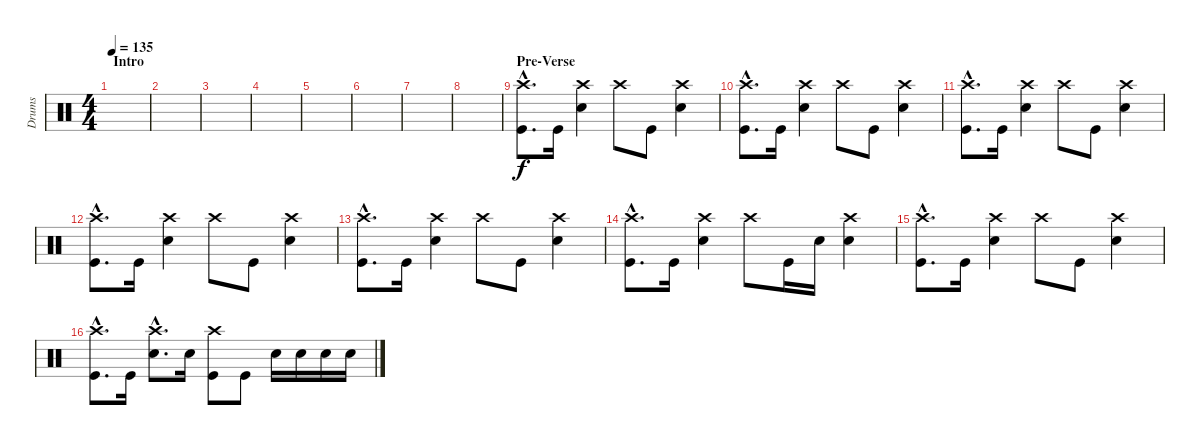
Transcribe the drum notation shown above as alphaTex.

\track ("Drums" "Drums") {instrument percussion}
\staff {score}
\articulation defaults
\ts (4 4)
\section ("" "Intro")
\tempo 135
\clef neutral
\ks c
|
|
|
|
|
|
|
|
\section ("" "Pre-Verse")
("Crash high (hit)"{hac} "Kick (hit)"{hac}).8{d} "Kick (hit)".16 ("Crash high (hit)" "Electric Snare (hit)").4 "Crash high (hit)".8 "Kick (hit)".8 ("Crash high (hit)" "Electric Snare (hit)").4 |
("Crash high (hit)"{hac} "Kick (hit)"{hac}).8{d} "Kick (hit)".16 ("Crash high (hit)" "Electric Snare (hit)").4 "Crash high (hit)".8 "Kick (hit)".8 ("Crash high (hit)" "Electric Snare (hit)").4 |
("Crash high (hit)"{hac} "Kick (hit)"{hac}).8{d} "Kick (hit)".16 ("Crash high (hit)" "Electric Snare (hit)").4 "Crash high (hit)".8 "Kick (hit)".8 ("Crash high (hit)" "Electric Snare (hit)").4 |
("Crash high (hit)"{hac} "Kick (hit)"{hac}).8{d} "Kick (hit)".16 ("Crash high (hit)" "Electric Snare (hit)").4 "Crash high (hit)".8 "Kick (hit)".8 ("Crash high (hit)" "Electric Snare (hit)").4 |
("Crash high (hit)"{hac} "Kick (hit)"{hac}).8{d} "Kick (hit)".16 ("Crash high (hit)" "Electric Snare (hit)").4 "Crash high (hit)".8 "Kick (hit)".8 ("Crash high (hit)" "Electric Snare (hit)").4 |
("Crash high (hit)"{hac} "Kick (hit)"{hac}).8{d} "Kick (hit)".16 ("Crash high (hit)" "Electric Snare (hit)").4 "Crash high (hit)".8 "Kick (hit)".16 "Electric Snare (hit)".16 ("Crash high (hit)" "Electric Snare (hit)").4 |
("Crash high (hit)"{hac} "Kick (hit)"{hac}).8{d} "Kick (hit)".16 ("Crash high (hit)" "Electric Snare (hit)").4 "Crash high (hit)".8 "Kick (hit)".8 ("Crash high (hit)" "Electric Snare (hit)").4 |
("Crash high (hit)"{hac} "Kick (hit)"{hac}).8{d} "Kick (hit)".16 ("Crash high (hit)"{hac} "Electric Snare (hit)"{hac}).8{d} "Electric Snare (hit)".16 ("Crash high (hit)" "Kick (hit)").8 "Kick (hit)".8 "Electric Snare (hit)".16 "Electric Snare (hit)".16 "Electric Snare (hit)".16 "Electric Snare (hit)".16
